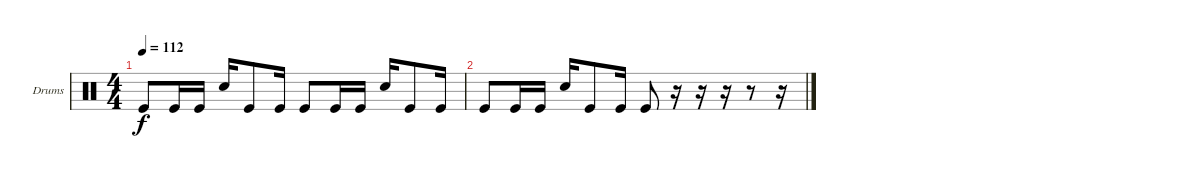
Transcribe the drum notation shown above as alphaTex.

\bracketExtendMode groupsimilarinstruments
\firstSystemTrackNameOrientation horizontal
\otherSystemsTrackNameOrientation horizontal
\track ("Drumkit" "Drums") {instrument percussion}
\staff {score}
\articulation defaults
\ts (4 4)
\tempo 112
\clef neutral
\ks c "Kick (hit)".8{dy f} "Kick (hit)".16 "Kick (hit)".16 "Snare (hit) 2".16 "Kick (hit)".8 "Kick (hit)".16 "Kick (hit)".8 "Kick (hit)".16 "Kick (hit)".16 "Snare (hit) 2".16 "Kick (hit)".8 "Kick (hit)".16
|
"Kick (hit)".8 "Kick (hit)".16 "Kick (hit)".16 "Snare (hit) 2".16 "Kick (hit)".8 "Kick (hit)".16 "Kick (hit)".8 r.16 r.16 r.16 r.8 r.16
